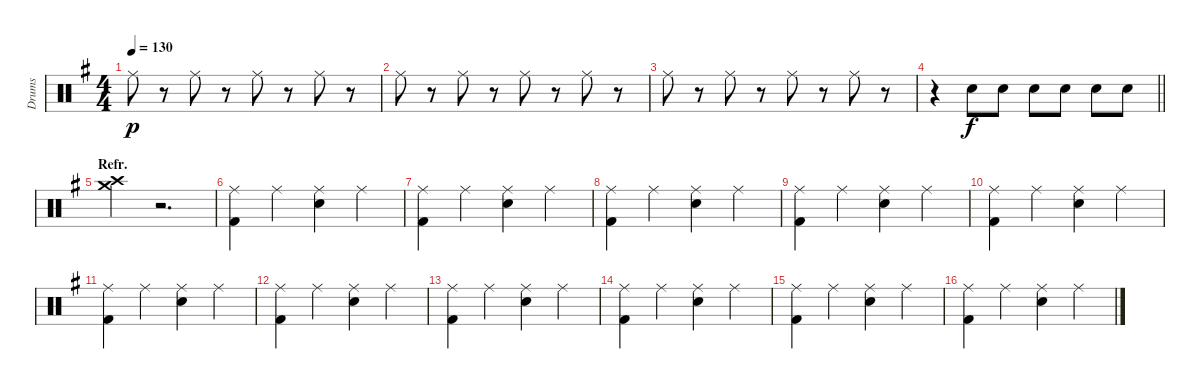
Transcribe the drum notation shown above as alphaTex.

\track ("Drums" "Drums") {instrument percussion}
\staff {score}
\articulation defaults
\ts (4 4)
\tempo 130
\clef neutral
\ks g "Ride (middle)".8{dy p}
r.8 "Ride (middle)".8 r.8 "Ride (middle)".8 r.8 "Ride (middle)".8 r.8 |
"Ride (middle)".8 r.8 "Ride (middle)".8 r.8 "Ride (middle)".8 r.8 "Ride (middle)".8 r.8 |
"Ride (middle)".8 r.8 "Ride (middle)".8 r.8 "Ride (middle)".8 r.8 "Ride (middle)".8 r.8 |
\barLineRight lightlight
r.4 "Snare (hit) 2".8{dy f} "Snare (hit) 2".8 "Snare (hit) 2".8 "Snare (hit) 2".8 "Snare (hit) 2".8 "Snare (hit) 2".8 |
\section ("" "Refr.")
("Crash high (hit)" "Crash medium (hit)").4 r.2{d} |
("Ride (middle)" "Kick (hit) 2").4 "Ride (middle)".4 ("Ride (middle)" "Snare (hit) 2").4 "Ride (middle)".4 |
("Ride (middle)" "Kick (hit) 2").4 "Ride (middle)".4 ("Ride (middle)" "Snare (hit) 2").4 "Ride (middle)".4 |
("Ride (middle)" "Kick (hit) 2").4 "Ride (middle)".4 ("Ride (middle)" "Snare (hit) 2").4 "Ride (middle)".4 |
("Ride (middle)" "Kick (hit) 2").4 "Ride (middle)".4 ("Ride (middle)" "Snare (hit) 2").4 "Ride (middle)".4 |
("Ride (middle)" "Kick (hit) 2").4 "Ride (middle)".4 ("Ride (middle)" "Snare (hit) 2").4 "Ride (middle)".4 |
("Ride (middle)" "Kick (hit) 2").4 "Ride (middle)".4 ("Ride (middle)" "Snare (hit) 2").4 "Ride (middle)".4 |
("Ride (middle)" "Kick (hit) 2").4 "Ride (middle)".4 ("Ride (middle)" "Snare (hit) 2").4 "Ride (middle)".4 |
("Ride (middle)" "Kick (hit) 2").4 "Ride (middle)".4 ("Ride (middle)" "Snare (hit) 2").4 "Ride (middle)".4 |
("Ride (middle)" "Kick (hit) 2").4 "Ride (middle)".4 ("Ride (middle)" "Snare (hit) 2").4 "Ride (middle)".4 |
("Ride (middle)" "Kick (hit) 2").4 "Ride (middle)".4 ("Ride (middle)" "Snare (hit) 2").4 "Ride (middle)".4 |
("Ride (middle)" "Kick (hit) 2").4 "Ride (middle)".4 ("Ride (middle)" "Snare (hit) 2").4 "Ride (middle)".4
